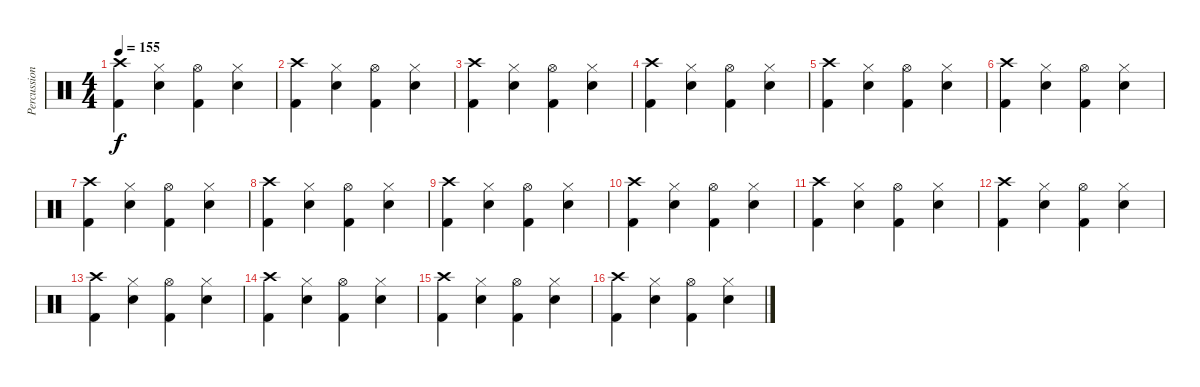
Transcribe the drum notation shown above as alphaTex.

\track ("Percussion" "Percussion") {instrument percussion}
\staff {score}
\articulation defaults
\ts (4 4)
\tempo 155
\clef neutral
\ks c
("Crash high (hit)" "Kick (hit) 2").4{dy f} ("Hi-Hat (closed)" "Snare (hit) 2").4 ("Hi-Hat (open)" "Kick (hit) 2").4 ("Hi-Hat (closed)" "Snare (hit) 2").4 |
("Crash high (hit)" "Kick (hit) 2").4 ("Hi-Hat (closed)" "Snare (hit) 2").4 ("Hi-Hat (open)" "Kick (hit) 2").4 ("Hi-Hat (closed)" "Snare (hit) 2").4 |
("Crash high (hit)" "Kick (hit) 2").4 ("Hi-Hat (closed)" "Snare (hit) 2").4 ("Hi-Hat (open)" "Kick (hit) 2").4 ("Hi-Hat (closed)" "Snare (hit) 2").4 |
("Crash high (hit)" "Kick (hit) 2").4 ("Hi-Hat (closed)" "Snare (hit) 2").4 ("Hi-Hat (open)" "Kick (hit) 2").4 ("Hi-Hat (closed)" "Snare (hit) 2").4 |
("Crash high (hit)" "Kick (hit) 2").4 ("Hi-Hat (closed)" "Snare (hit) 2").4 ("Hi-Hat (open)" "Kick (hit) 2").4 ("Hi-Hat (closed)" "Snare (hit) 2").4 |
("Crash high (hit)" "Kick (hit) 2").4 ("Hi-Hat (closed)" "Snare (hit) 2").4 ("Hi-Hat (open)" "Kick (hit) 2").4 ("Hi-Hat (closed)" "Snare (hit) 2").4 |
("Crash high (hit)" "Kick (hit) 2").4 ("Hi-Hat (closed)" "Snare (hit) 2").4 ("Hi-Hat (open)" "Kick (hit) 2").4 ("Hi-Hat (closed)" "Snare (hit) 2").4 |
("Crash high (hit)" "Kick (hit) 2").4 ("Hi-Hat (closed)" "Snare (hit) 2").4 ("Hi-Hat (open)" "Kick (hit) 2").4 ("Hi-Hat (closed)" "Snare (hit) 2").4 |
("Crash high (hit)" "Kick (hit) 2").4 ("Hi-Hat (closed)" "Snare (hit) 2").4 ("Hi-Hat (open)" "Kick (hit) 2").4 ("Hi-Hat (closed)" "Snare (hit) 2").4 |
("Crash high (hit)" "Kick (hit) 2").4 ("Hi-Hat (closed)" "Snare (hit) 2").4 ("Hi-Hat (open)" "Kick (hit) 2").4 ("Hi-Hat (closed)" "Snare (hit) 2").4 |
("Crash high (hit)" "Kick (hit) 2").4 ("Hi-Hat (closed)" "Snare (hit) 2").4 ("Hi-Hat (open)" "Kick (hit) 2").4 ("Hi-Hat (closed)" "Snare (hit) 2").4 |
("Crash high (hit)" "Kick (hit) 2").4 ("Hi-Hat (closed)" "Snare (hit) 2").4 ("Hi-Hat (open)" "Kick (hit) 2").4 ("Hi-Hat (closed)" "Snare (hit) 2").4 |
("Crash high (hit)" "Kick (hit) 2").4 ("Hi-Hat (closed)" "Snare (hit) 2").4 ("Hi-Hat (open)" "Kick (hit) 2").4 ("Hi-Hat (closed)" "Snare (hit) 2").4 |
("Crash high (hit)" "Kick (hit) 2").4 ("Hi-Hat (closed)" "Snare (hit) 2").4 ("Hi-Hat (open)" "Kick (hit) 2").4 ("Hi-Hat (closed)" "Snare (hit) 2").4 |
("Crash high (hit)" "Kick (hit) 2").4 ("Hi-Hat (closed)" "Snare (hit) 2").4 ("Hi-Hat (open)" "Kick (hit) 2").4 ("Hi-Hat (closed)" "Snare (hit) 2").4 |
("Crash high (hit)" "Kick (hit) 2").4 ("Hi-Hat (closed)" "Snare (hit) 2").4 ("Hi-Hat (open)" "Kick (hit) 2").4 ("Hi-Hat (closed)" "Snare (hit) 2").4
